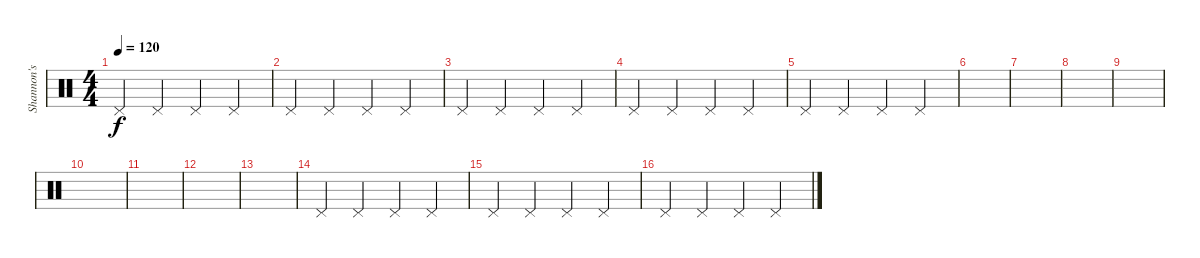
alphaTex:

\track ("Shannon's Hi-Hat" "Shannon's ") {instrument percussion}
\staff {score}
\articulation defaults
\ts (4 4)
\tempo 120
\clef neutral
\ks c "Pedal Hi-Hat (hit)".4{dy f} "Pedal Hi-Hat (hit)".4 "Pedal Hi-Hat (hit)".4 "Pedal Hi-Hat (hit)".4
|
"Pedal Hi-Hat (hit)".4 "Pedal Hi-Hat (hit)".4 "Pedal Hi-Hat (hit)".4 "Pedal Hi-Hat (hit)".4 |
"Pedal Hi-Hat (hit)".4 "Pedal Hi-Hat (hit)".4 "Pedal Hi-Hat (hit)".4 "Pedal Hi-Hat (hit)".4 |
"Pedal Hi-Hat (hit)".4 "Pedal Hi-Hat (hit)".4 "Pedal Hi-Hat (hit)".4 "Pedal Hi-Hat (hit)".4 |
"Pedal Hi-Hat (hit)".4 "Pedal Hi-Hat (hit)".4 "Pedal Hi-Hat (hit)".4 "Pedal Hi-Hat (hit)".4 |
|
|
|
|
|
|
|
|
"Pedal Hi-Hat (hit)".4 "Pedal Hi-Hat (hit)".4 "Pedal Hi-Hat (hit)".4 "Pedal Hi-Hat (hit)".4 |
"Pedal Hi-Hat (hit)".4 "Pedal Hi-Hat (hit)".4 "Pedal Hi-Hat (hit)".4 "Pedal Hi-Hat (hit)".4 |
"Pedal Hi-Hat (hit)".4 "Pedal Hi-Hat (hit)".4 "Pedal Hi-Hat (hit)".4 "Pedal Hi-Hat (hit)".4
